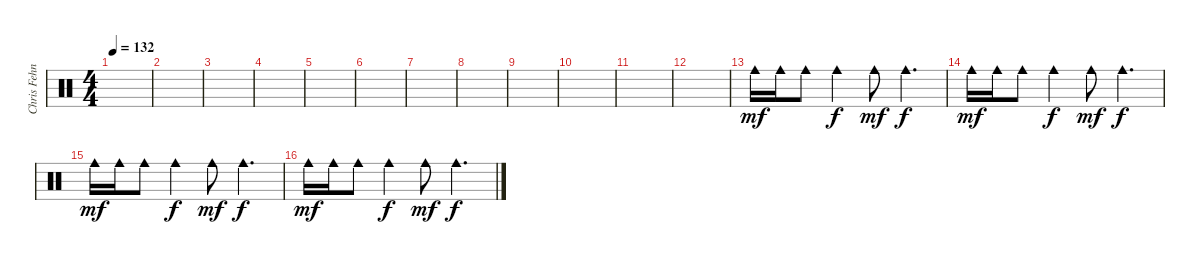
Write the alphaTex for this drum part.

\track ("Chris Fehn" "Chris Fehn") {instrument percussion}
\staff {score}
\articulation defaults
\ts (4 4)
\tempo 132
\clef neutral
\ks c
|
|
|
|
|
|
|
|
|
|
|
|
"Cowbell medium (hit)".16{dy mf} "Cowbell medium (hit)".16 "Cowbell medium (hit)".8 "Cowbell medium (hit)".4{dy f} "Cowbell medium (hit)".8{dy mf} "Cowbell medium (hit)".4{d dy f} |
"Cowbell medium (hit)".16{dy mf} "Cowbell medium (hit)".16 "Cowbell medium (hit)".8 "Cowbell medium (hit)".4{dy f} "Cowbell medium (hit)".8{dy mf} "Cowbell medium (hit)".4{d dy f} |
"Cowbell medium (hit)".16{dy mf} "Cowbell medium (hit)".16 "Cowbell medium (hit)".8 "Cowbell medium (hit)".4{dy f} "Cowbell medium (hit)".8{dy mf} "Cowbell medium (hit)".4{d dy f} |
"Cowbell medium (hit)".16{dy mf} "Cowbell medium (hit)".16 "Cowbell medium (hit)".8 "Cowbell medium (hit)".4{dy f} "Cowbell medium (hit)".8{dy mf} "Cowbell medium (hit)".4{d dy f}
